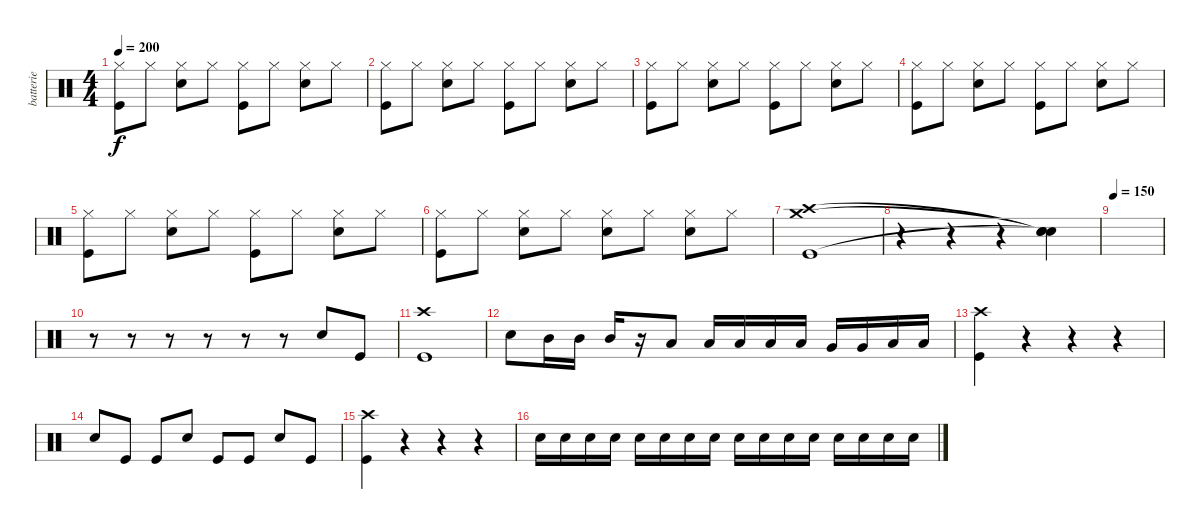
\track ("batterie" "batterie") {instrument percussion}
\staff {score}
\articulation defaults
\ts (4 4)
\tempo 200
\clef neutral
\ks c
("Hi-Hat (closed)" "Kick (hit)").8{dy f} "Hi-Hat (closed)".8 ("Hi-Hat (closed)" "Electric Snare (hit)").8 "Hi-Hat (closed)".8 ("Hi-Hat (closed)" "Kick (hit)").8 "Hi-Hat (closed)".8 ("Hi-Hat (closed)" "Electric Snare (hit)").8 "Hi-Hat (closed)".8 |
("Hi-Hat (closed)" "Kick (hit)").8 "Hi-Hat (closed)".8 ("Hi-Hat (closed)" "Electric Snare (hit)").8 "Hi-Hat (closed)".8 ("Hi-Hat (closed)" "Kick (hit)").8 "Hi-Hat (closed)".8 ("Hi-Hat (closed)" "Electric Snare (hit)").8 "Hi-Hat (closed)".8 |
("Hi-Hat (closed)" "Kick (hit)").8 "Hi-Hat (closed)".8 ("Hi-Hat (closed)" "Electric Snare (hit)").8 "Hi-Hat (closed)".8 ("Hi-Hat (closed)" "Kick (hit)").8 "Hi-Hat (closed)".8 ("Hi-Hat (closed)" "Electric Snare (hit)").8 "Hi-Hat (closed)".8 |
("Hi-Hat (closed)" "Kick (hit)").8 "Hi-Hat (closed)".8 ("Hi-Hat (closed)" "Electric Snare (hit)").8 "Hi-Hat (closed)".8 ("Hi-Hat (closed)" "Kick (hit)").8 "Hi-Hat (closed)".8 ("Hi-Hat (closed)" "Electric Snare (hit)").8 "Hi-Hat (closed)".8 |
("Hi-Hat (closed)" "Kick (hit)").8 "Hi-Hat (closed)".8 ("Hi-Hat (closed)" "Electric Snare (hit)").8 "Hi-Hat (closed)".8 ("Hi-Hat (closed)" "Kick (hit)").8 "Hi-Hat (closed)".8 ("Hi-Hat (closed)" "Electric Snare (hit)").8 "Hi-Hat (closed)".8 |
("Hi-Hat (closed)" "Kick (hit)").8 "Hi-Hat (closed)".8 ("Hi-Hat (closed)" "Electric Snare (hit)").8 "Hi-Hat (closed)".8 ("Hi-Hat (closed)" "Electric Snare (hit)").8 "Hi-Hat (closed)".8 ("Hi-Hat (closed)" "Electric Snare (hit)").8 "Hi-Hat (closed)".8 |
("Crash medium (hit)" "Crash high (hit)" "Kick (hit)").1 |
r.4 r.4 r.4 ("Snare (hit)"{t} "Snare (hit)"{t} "Snare (hit)"{t}).4 |
\tempo 150
|
r.8 r.8 r.8 r.8 r.8 r.8 "Electric Snare (hit)".8 "Kick (hit)".8 |
("Crash high (hit)" "Kick (hit)").1 |
"Electric Snare (hit)".8 "Mid Tom (hit)".16 "Mid Tom (hit)".16 "Mid Tom (hit)".16 r.16 "Low Tom (hit)".8 "Low Tom (hit)".16 "Low Tom (hit)".16 "Low Tom (hit)".16 "Low Tom (hit)".16 "Very Low Tom (hit)".16 "Very Low Tom (hit)".16 "Low Floor Tom (hit)".16 "Low Floor Tom (hit)".16 |
("Crash high (hit)" "Kick (hit)").4 r.4 r.4 r.4 |
"Electric Snare (hit)".8 "Kick (hit)".8 "Kick (hit)".8 "Electric Snare (hit)".8 "Kick (hit)".8 "Kick (hit)".8 "Electric Snare (hit)".8 "Kick (hit)".8 |
("Crash high (hit)" "Kick (hit)").4 r.4 r.4 r.4 |
"Electric Snare (hit)".16 "Electric Snare (hit)".16 "Electric Snare (hit)".16 "Electric Snare (hit)".16 "Electric Snare (hit)".16 "Electric Snare (hit)".16 "Electric Snare (hit)".16 "Electric Snare (hit)".16 "Electric Snare (hit)".16 "Electric Snare (hit)".16 "Electric Snare (hit)".16 "Electric Snare (hit)".16 "Electric Snare (hit)".16 "Electric Snare (hit)".16 "Electric Snare (hit)".16 "Electric Snare (hit)".16
